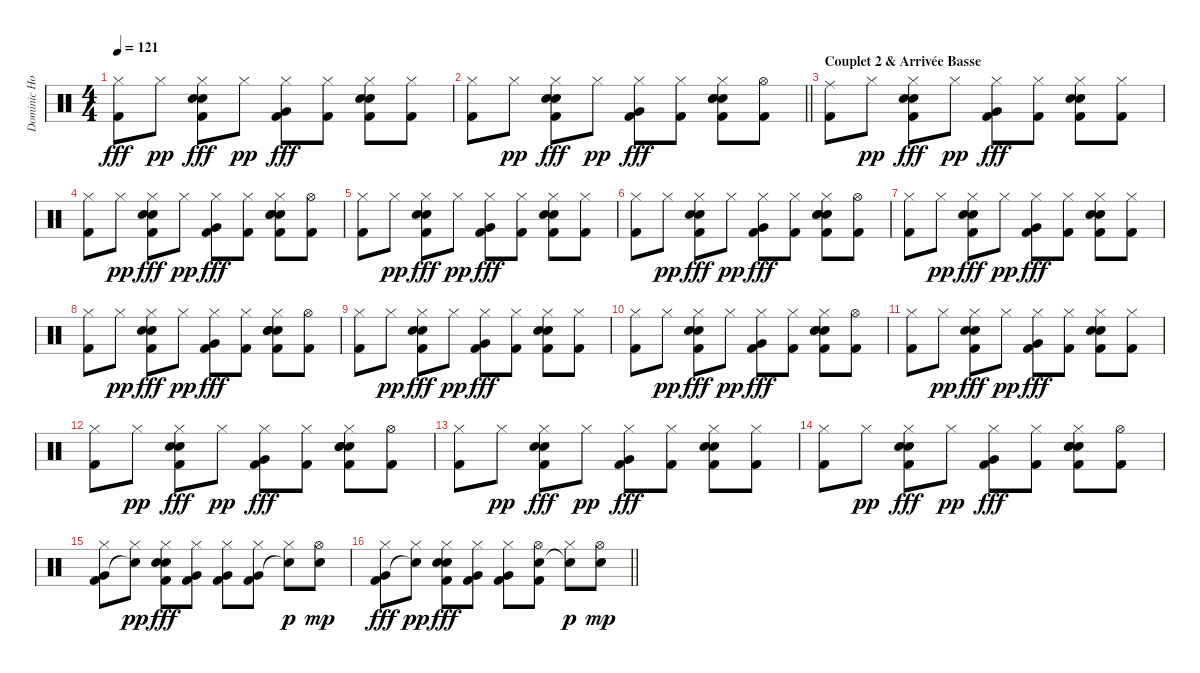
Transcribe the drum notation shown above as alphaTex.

\track ("Dominic Howard" "Dominic Ho") {instrument percussion}
\staff {score}
\articulation defaults
\ts (4 4)
\tempo 121
\clef neutral
\ks c
("Hi-Hat (closed)" "Kick (hit) 2").8{dy fff} "Hi-Hat (closed)".8{dy pp} ("Hi-Hat (closed)" "Electric Snare (hit)" "Hand Clap (hit)" "Kick (hit) 2").8{dy fff} "Hi-Hat (closed)".8{dy pp} ("Hi-Hat (closed)" "Very Low Tom (hit)" "Kick (hit) 2").8{dy fff} ("Hi-Hat (closed)" "Kick (hit) 2").8 ("Hi-Hat (closed)" "Electric Snare (hit)" "Hand Clap (hit)" "Kick (hit) 2").8 ("Hi-Hat (closed)" "Kick (hit) 2").8 |
\barLineRight lightlight
("Hi-Hat (closed)" "Kick (hit) 2").8 "Hi-Hat (closed)".8{dy pp} ("Hi-Hat (closed)" "Electric Snare (hit)" "Hand Clap (hit)" "Kick (hit) 2").8{dy fff} "Hi-Hat (closed)".8{dy pp} ("Hi-Hat (closed)" "Very Low Tom (hit)" "Kick (hit) 2").8{dy fff} ("Hi-Hat (closed)" "Kick (hit) 2").8 ("Hi-Hat (closed)" "Electric Snare (hit)" "Electric Snare (hit)" "Hand Clap (hit)" "Kick (hit) 2").8 ("Hi-Hat (open)" "Kick (hit) 2").8 |
\section ("" "Couplet 2 & Arrivée Basse")
("Ride (middle)" "Kick (hit) 2").8 "Hi-Hat (closed)".8{dy pp} ("Hi-Hat (closed)" "Electric Snare (hit)" "Hand Clap (hit)" "Kick (hit) 2").8{dy fff} "Hi-Hat (closed)".8{dy pp} ("Hi-Hat (closed)" "Very Low Tom (hit)" "Kick (hit) 2").8{dy fff} ("Hi-Hat (closed)" "Kick (hit) 2").8 ("Hi-Hat (closed)" "Electric Snare (hit)" "Hand Clap (hit)" "Kick (hit) 2").8 ("Hi-Hat (closed)" "Kick (hit) 2").8 |
("Hi-Hat (closed)" "Kick (hit) 2").8 "Hi-Hat (closed)".8{dy pp} ("Hi-Hat (closed)" "Electric Snare (hit)" "Hand Clap (hit)" "Kick (hit) 2").8{dy fff} "Hi-Hat (closed)".8{dy pp} ("Hi-Hat (closed)" "Very Low Tom (hit)" "Kick (hit) 2").8{dy fff} ("Hi-Hat (closed)" "Kick (hit) 2").8 ("Hi-Hat (closed)" "Electric Snare (hit)" "Electric Snare (hit)" "Hand Clap (hit)" "Kick (hit) 2").8 ("Hi-Hat (open)" "Kick (hit) 2").8 |
("Hi-Hat (closed)" "Kick (hit) 2").8 "Hi-Hat (closed)".8{dy pp} ("Hi-Hat (closed)" "Electric Snare (hit)" "Hand Clap (hit)" "Kick (hit) 2").8{dy fff} "Hi-Hat (closed)".8{dy pp} ("Hi-Hat (closed)" "Very Low Tom (hit)" "Kick (hit) 2").8{dy fff} ("Hi-Hat (closed)" "Kick (hit) 2").8 ("Hi-Hat (closed)" "Electric Snare (hit)" "Hand Clap (hit)" "Kick (hit) 2").8 ("Hi-Hat (closed)" "Kick (hit) 2").8 |
("Hi-Hat (closed)" "Kick (hit) 2").8 "Hi-Hat (closed)".8{dy pp} ("Hi-Hat (closed)" "Electric Snare (hit)" "Hand Clap (hit)" "Kick (hit) 2").8{dy fff} "Hi-Hat (closed)".8{dy pp} ("Hi-Hat (closed)" "Very Low Tom (hit)" "Kick (hit) 2").8{dy fff} ("Hi-Hat (closed)" "Kick (hit) 2").8 ("Hi-Hat (closed)" "Electric Snare (hit)" "Electric Snare (hit)" "Hand Clap (hit)" "Kick (hit) 2").8 ("Hi-Hat (open)" "Kick (hit) 2").8 |
("Hi-Hat (closed)" "Kick (hit) 2").8 "Hi-Hat (closed)".8{dy pp} ("Hi-Hat (closed)" "Electric Snare (hit)" "Hand Clap (hit)" "Kick (hit) 2").8{dy fff} "Hi-Hat (closed)".8{dy pp} ("Hi-Hat (closed)" "Very Low Tom (hit)" "Kick (hit) 2").8{dy fff} ("Hi-Hat (closed)" "Kick (hit) 2").8 ("Hi-Hat (closed)" "Electric Snare (hit)" "Hand Clap (hit)" "Kick (hit) 2").8 ("Hi-Hat (closed)" "Kick (hit) 2").8 |
("Hi-Hat (closed)" "Kick (hit) 2").8 "Hi-Hat (closed)".8{dy pp} ("Hi-Hat (closed)" "Electric Snare (hit)" "Hand Clap (hit)" "Kick (hit) 2").8{dy fff} "Hi-Hat (closed)".8{dy pp} ("Hi-Hat (closed)" "Very Low Tom (hit)" "Kick (hit) 2").8{dy fff} ("Hi-Hat (closed)" "Kick (hit) 2").8 ("Hi-Hat (closed)" "Electric Snare (hit)" "Electric Snare (hit)" "Hand Clap (hit)" "Kick (hit) 2").8 ("Hi-Hat (open)" "Kick (hit) 2").8 |
("Hi-Hat (closed)" "Kick (hit) 2").8 "Hi-Hat (closed)".8{dy pp} ("Hi-Hat (closed)" "Electric Snare (hit)" "Hand Clap (hit)" "Kick (hit) 2").8{dy fff} "Hi-Hat (closed)".8{dy pp} ("Hi-Hat (closed)" "Very Low Tom (hit)" "Kick (hit) 2").8{dy fff} ("Hi-Hat (closed)" "Kick (hit) 2").8 ("Hi-Hat (closed)" "Electric Snare (hit)" "Hand Clap (hit)" "Kick (hit) 2").8 ("Hi-Hat (closed)" "Kick (hit) 2").8 |
("Hi-Hat (closed)" "Kick (hit) 2").8 "Hi-Hat (closed)".8{dy pp} ("Hi-Hat (closed)" "Electric Snare (hit)" "Hand Clap (hit)" "Kick (hit) 2").8{dy fff} "Hi-Hat (closed)".8{dy pp} ("Hi-Hat (closed)" "Very Low Tom (hit)" "Kick (hit) 2").8{dy fff} ("Hi-Hat (closed)" "Kick (hit) 2").8 ("Hi-Hat (closed)" "Electric Snare (hit)" "Electric Snare (hit)" "Hand Clap (hit)" "Kick (hit) 2").8 ("Hi-Hat (open)" "Kick (hit) 2").8 |
("Hi-Hat (closed)" "Kick (hit) 2").8 "Hi-Hat (closed)".8{dy pp} ("Hi-Hat (closed)" "Electric Snare (hit)" "Hand Clap (hit)" "Kick (hit) 2").8{dy fff} "Hi-Hat (closed)".8{dy pp} ("Hi-Hat (closed)" "Very Low Tom (hit)" "Kick (hit) 2").8{dy fff} ("Hi-Hat (closed)" "Kick (hit) 2").8 ("Hi-Hat (closed)" "Electric Snare (hit)" "Hand Clap (hit)" "Kick (hit) 2").8 ("Hi-Hat (closed)" "Kick (hit) 2").8 |
("Hi-Hat (closed)" "Kick (hit) 2").8 "Hi-Hat (closed)".8{dy pp} ("Hi-Hat (closed)" "Electric Snare (hit)" "Hand Clap (hit)" "Kick (hit) 2").8{dy fff} "Hi-Hat (closed)".8{dy pp} ("Hi-Hat (closed)" "Very Low Tom (hit)" "Kick (hit) 2").8{dy fff} ("Hi-Hat (closed)" "Kick (hit) 2").8 ("Hi-Hat (closed)" "Electric Snare (hit)" "Electric Snare (hit)" "Hand Clap (hit)" "Kick (hit) 2").8 ("Hi-Hat (open)" "Kick (hit) 2").8 |
("Hi-Hat (closed)" "Kick (hit) 2").8 "Hi-Hat (closed)".8{dy pp} ("Hi-Hat (closed)" "Electric Snare (hit)" "Hand Clap (hit)" "Kick (hit) 2").8{dy fff} "Hi-Hat (closed)".8{dy pp} ("Hi-Hat (closed)" "Very Low Tom (hit)" "Kick (hit) 2").8{dy fff} ("Hi-Hat (closed)" "Kick (hit) 2").8 ("Hi-Hat (closed)" "Electric Snare (hit)" "Hand Clap (hit)" "Kick (hit) 2").8 ("Hi-Hat (closed)" "Kick (hit) 2").8 |
("Hi-Hat (closed)" "Kick (hit) 2").8 "Hi-Hat (closed)".8{dy pp} ("Hi-Hat (closed)" "Electric Snare (hit)" "Hand Clap (hit)" "Kick (hit) 2").8{dy fff} "Hi-Hat (closed)".8{dy pp} ("Hi-Hat (closed)" "Very Low Tom (hit)" "Kick (hit) 2").8{dy fff} ("Hi-Hat (closed)" "Kick (hit) 2").8 ("Hi-Hat (closed)" "Electric Snare (hit)" "Electric Snare (hit)" "Hand Clap (hit)" "Kick (hit) 2").8 ("Hi-Hat (open)" "Kick (hit) 2").8 |
("Hi-Hat (closed)" "Very Low Tom (hit)" "Kick (hit) 2").8 ("Hi-Hat (closed)" "Snare (hit)"{t}).8{dy pp} ("Hi-Hat (closed)" "Electric Snare (hit)" "Hand Clap (hit)" "Kick (hit) 2").8{dy fff} ("Hi-Hat (closed)" "Very Low Tom (hit)" "Kick (hit) 2").8 ("Hi-Hat (closed)" "Very Low Tom (hit)" "Kick (hit) 2").8 ("Hi-Hat (closed)" "Very Low Tom (hit)" "Kick (hit) 2").8 ("Hi-Hat (closed)" "Snare (hit)"{t}).8{dy p} ("Hi-Hat (open)" "Electric Snare (hit)").8{dy mp} |
\barLineRight lightlight
("Hi-Hat (closed)" "Very Low Tom (hit)" "Kick (hit) 2").8{dy fff} ("Hi-Hat (closed)" "Snare (hit)"{t}).8{dy pp} ("Hi-Hat (closed)" "Electric Snare (hit)" "Hand Clap (hit)" "Kick (hit) 2").8{dy fff} ("Hi-Hat (closed)" "Very Low Tom (hit)" "Kick (hit) 2").8 ("Hi-Hat (closed)" "Very Low Tom (hit)" "Kick (hit) 2").8 ("Hi-Hat (open)" "Electric Snare (hit)" "Kick (hit) 2").8 ("Hi-Hat (closed)" "Snare (hit)"{t}).8{dy p} ("Hi-Hat (open)" "Electric Snare (hit)").8{dy mp}
